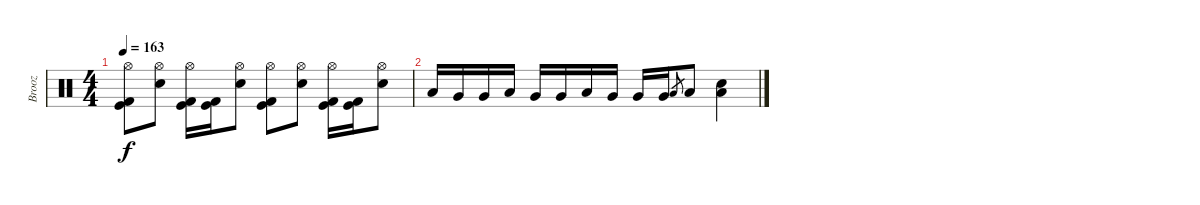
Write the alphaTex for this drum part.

\track ("Brooz" "Brooz") {instrument percussion}
\staff {score}
\articulation defaults
\ts (4 4)
\tempo 163
\clef neutral
\ks c
("Kick (hit) 2" "Kick (hit)" "Hi-Hat (open)").8{dy f} ("Snare (hit) 2" "Hi-Hat (open)").8 ("Hi-Hat (open)" "Kick (hit) 2" "Kick (hit)").16 ("Kick (hit) 2" "Kick (hit)").16 ("Hi-Hat (open)" "Snare (hit) 2").8 ("Kick (hit) 2" "Kick (hit)" "Hi-Hat (open)").8 ("Snare (hit) 2" "Hi-Hat (open)").8 ("Hi-Hat (open)" "Kick (hit) 2" "Kick (hit)").16 ("Kick (hit) 2" "Kick (hit)").16 ("Hi-Hat (open)" "Snare (hit) 2").8 |
"Low Tom (hit)".16 "Very Low Tom (hit)".16 "Very Low Tom (hit)".16 "Low Tom (hit)".16 "Very Low Tom (hit)".16 "Very Low Tom (hit)".16 "Low Tom (hit)".16 "Very Low Tom (hit)".16 "Very Low Tom (hit)".16 "Very Low Tom (hit)".16 "Low Tom (hit)".8{gr} "Low Tom (hit)".8 ("Snare (hit) 2" "Low Tom (hit)").4
